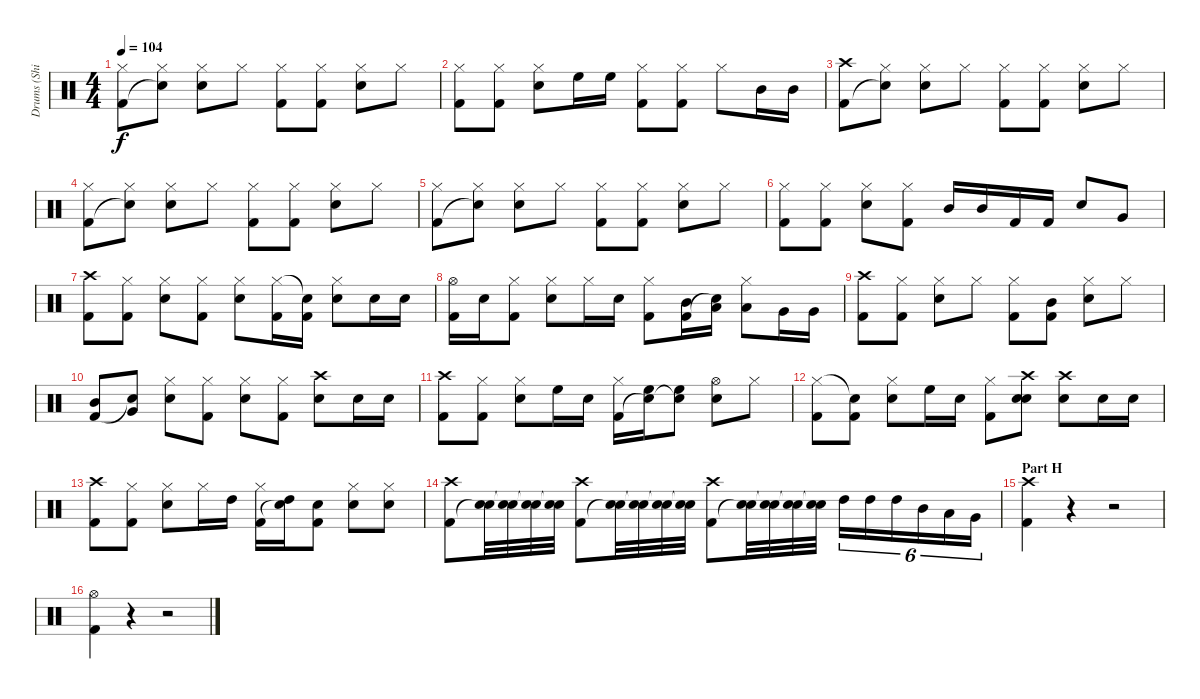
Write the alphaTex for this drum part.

\track ("Drums (Shinya)" "Drums (Shi") {instrument percussion}
\staff {score}
\articulation defaults
\ts (4 4)
\tempo 104
\clef neutral
\ks c
("Hi-Hat (closed)" "Kick (hit) 2").8{dy f} ("Hi-Hat (closed)" "Snare (hit)"{t}).8 ("Hi-Hat (closed)" "Electric Snare (hit)").8 "Hi-Hat (closed)".8 ("Hi-Hat (closed)" "Kick (hit) 2").8 ("Hi-Hat (closed)" "Kick (hit) 2").8 ("Hi-Hat (closed)" "Electric Snare (hit)").8 "Hi-Hat (closed)".8 |
("Hi-Hat (closed)" "Kick (hit) 2").8 ("Hi-Hat (closed)" "Kick (hit) 2").8 ("Hi-Hat (closed)" "Electric Snare (hit)").8 "High Floor Tom (hit)".16 "High Floor Tom (hit)".16 ("Hi-Hat (closed)" "Kick (hit) 2").8 ("Hi-Hat (closed)" "Kick (hit) 2").8 "Hi-Hat (closed)".8 "Mid Tom (hit)".16 "Mid Tom (hit)".16 |
("Crash high (hit)" "Kick (hit) 2").8 ("Hi-Hat (closed)" "Snare (hit)"{t}).8 ("Hi-Hat (closed)" "Electric Snare (hit)").8 "Hi-Hat (closed)".8 ("Hi-Hat (closed)" "Kick (hit) 2").8 ("Hi-Hat (closed)" "Kick (hit) 2").8 ("Hi-Hat (closed)" "Electric Snare (hit)").8 "Hi-Hat (closed)".8 |
("Hi-Hat (closed)" "Kick (hit) 2").8 ("Hi-Hat (closed)" "Snare (hit)"{t}).8 ("Hi-Hat (closed)" "Electric Snare (hit)").8 "Hi-Hat (closed)".8 ("Hi-Hat (closed)" "Kick (hit) 2").8 ("Hi-Hat (closed)" "Kick (hit) 2").8 ("Hi-Hat (closed)" "Electric Snare (hit)").8 "Hi-Hat (closed)".8 |
("Hi-Hat (closed)" "Kick (hit) 2").8 ("Hi-Hat (closed)" "Snare (hit)"{t}).8 ("Hi-Hat (closed)" "Electric Snare (hit)").8 "Hi-Hat (closed)".8 ("Hi-Hat (closed)" "Kick (hit) 2").8 ("Hi-Hat (closed)" "Kick (hit) 2").8 ("Hi-Hat (closed)" "Electric Snare (hit)").8 "Hi-Hat (closed)".8 |
("Hi-Hat (closed)" "Kick (hit) 2").8 ("Hi-Hat (closed)" "Kick (hit) 2").8 ("Hi-Hat (closed)" "Electric Snare (hit)").8 ("Hi-Hat (closed)" "Kick (hit) 2").8 "Mid Tom (hit)".16 "Mid Tom (hit)".16 "Kick (hit) 2".16 "Kick (hit) 2".16 "Electric Snare (hit)".8 "Very Low Tom (hit)".8 |
("Crash high (hit)" "Kick (hit) 2").8 ("Hi-Hat (closed)" "Kick (hit) 2").8 ("Hi-Hat (closed)" "Electric Snare (hit)").8 ("Hi-Hat (closed)" "Kick (hit) 2").8 ("Hi-Hat (closed)" "Electric Snare (hit)").8 ("Hi-Hat (closed)" "Kick (hit) 2").16 ("Snare (hit)"{t} "Kick (hit) 2").16 ("Hi-Hat (closed)" "Electric Snare (hit)").8 "Electric Snare (hit)".16 "Electric Snare (hit)".16 |
("Hi-Hat (open)" "Kick (hit) 2").16 "Electric Snare (hit)".16 ("Hi-Hat (closed)" "Kick (hit) 2").8 ("Hi-Hat (closed)" "Electric Snare (hit)").8 "Hi-Hat (closed)".16 "Electric Snare (hit)".16 ("Hi-Hat (closed)" "Kick (hit) 2").8 ("Mid Tom (hit)" "Kick (hit) 2").16 ("Low Tom (hit)" "Snare (hit)"{t}).16 ("Hi-Hat (closed)" "Low Tom (hit)").8 "Very Low Tom (hit)".16 "Very Low Tom (hit)".16 |
("Crash high (hit)" "Kick (hit) 2").8 ("Hi-Hat (closed)" "Kick (hit) 2").8 ("Hi-Hat (closed)" "Electric Snare (hit)").8 "Hi-Hat (closed)".8 ("Hi-Hat (closed)" "Kick (hit) 2").8 ("Mid Tom (hit)" "Kick (hit) 2").8 ("Hi-Hat (closed)" "Electric Snare (hit)").8 "Hi-Hat (closed)".8 |
("Mid Tom (hit)" "Kick (hit) 2").8 ("Very Low Tom (hit)" "Snare (hit)"{t}).8 ("Hi-Hat (closed)" "Electric Snare (hit)").8 ("Hi-Hat (closed)" "Kick (hit) 2").8 ("Hi-Hat (closed)" "Electric Snare (hit)").8 ("Hi-Hat (closed)" "Kick (hit) 2").8 ("Crash high (hit)" "Electric Snare (hit)").8 "Electric Snare (hit)".16 "Electric Snare (hit)".16 |
("Crash high (hit)" "Kick (hit) 2").8 ("Hi-Hat (closed)" "Kick (hit) 2").8 ("Hi-Hat (closed)" "Electric Snare (hit)").8 "High Floor Tom (hit)".16 "Electric Snare (hit)".16 ("Hi-Hat (closed)" "Kick (hit) 2").16 ("High Floor Tom (hit)" "Snare (hit)"{t}).16 ("High Floor Tom (hit)" "Snare (hit)"{t}).8 ("Hi-Hat (open)" "Electric Snare (hit)").8 "Hi-Hat (closed)".8 |
("Hi-Hat (closed)" "Kick (hit) 2").8 ("Snare (hit)"{t} "Kick (hit) 2").8 ("Hi-Hat (closed)" "Electric Snare (hit)").8 "High Floor Tom (hit)".16 "Electric Snare (hit)".16 ("Hi-Hat (closed)" "Kick (hit) 2").8 ("Crash high (hit)" "Electric Snare (hit)" "Snare (hit)").8 ("Crash high (hit)" "Electric Snare (hit)").8 "Electric Snare (hit)".16 "Electric Snare (hit)".16 |
("Crash high (hit)" "Kick (hit) 2").8 ("Hi-Hat (closed)" "Kick (hit) 2").8 ("Hi-Hat (closed)" "Electric Snare (hit)").8 "Hi-Hat (closed)".16 "High Tom (hit)".16 ("Hi-Hat (closed)" "Kick (hit) 2").16 ("High Tom (hit)" "Snare (hit)"{t}).16 ("Electric Snare (hit)" "Kick (hit) 2").8 ("Hi-Hat (closed)" "Electric Snare (hit)").8 ("Hi-Hat (closed)" "Electric Snare (hit)").8 |
("Crash high (hit)" "Kick (hit) 2").8 ("Electric Snare (hit)" "Snare (hit)"{t}).32 ("Electric Snare (hit)" "Snare (hit)"{t}).32 ("Electric Snare (hit)" "Snare (hit)"{t}).32 ("Electric Snare (hit)" "Snare (hit)"{t}).32 ("Crash high (hit)" "Kick (hit) 2").8 ("Electric Snare (hit)" "Snare (hit)"{t}).32 ("Electric Snare (hit)" "Snare (hit)"{t}).32 ("Electric Snare (hit)" "Snare (hit)"{t}).32 ("Electric Snare (hit)" "Snare (hit)"{t}).32 ("Crash high (hit)" "Kick (hit) 2").8 ("Electric Snare (hit)" "Snare (hit)"{t}).32 ("Electric Snare (hit)" "Snare (hit)"{t}).32 ("Electric Snare (hit)" "Snare (hit)"{t}).32 ("Electric Snare (hit)" "Snare (hit)"{t}).32 "High Tom (hit)".16{tu (6 4)} "High Tom (hit)".16{tu (6 4)} "High Tom (hit)".16{tu (6 4)} "Mid Tom (hit)".16{tu (6 4)} "Low Tom (hit)".16{tu (6 4)} "Very Low Tom (hit)".16{tu (6 4)} |
\section ("" "Part H")
("Crash high (hit)" "Kick (hit) 2").4 r.4 r.2 |
("Hi-Hat (open)" "Kick (hit) 2").4 r.4 r.2
